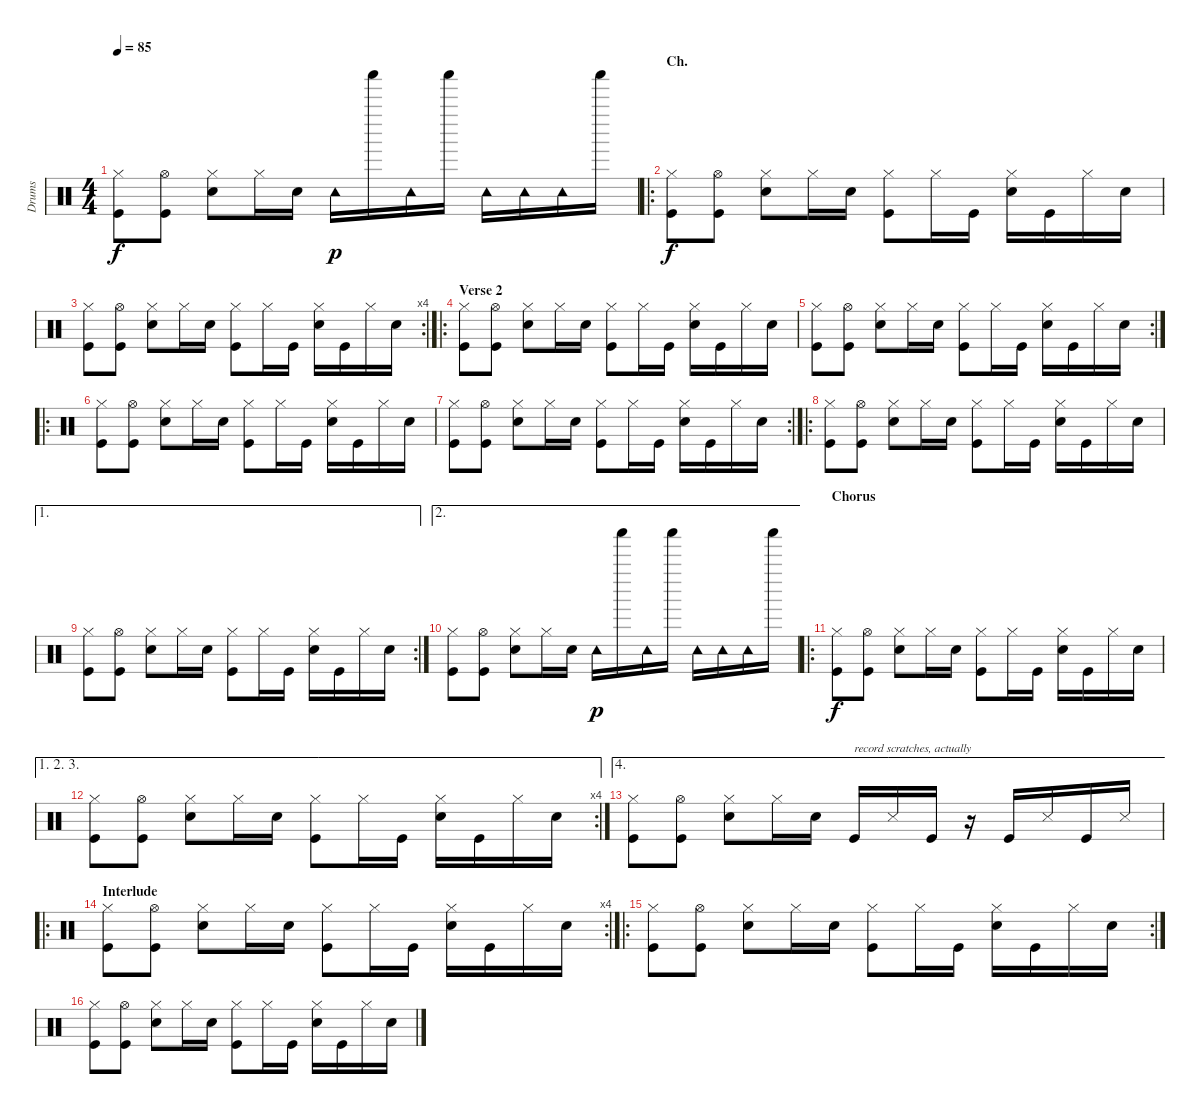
\track ("Drums" "Drums") {instrument percussion}
\staff {score}
\articulation defaults
\ts (4 4)
\tempo 85
\clef neutral
\ks c
("Hi-Hat (closed)" "Kick (hit)").8{dy f} ("Hi-Hat (open)" "Kick (hit)").8 ("Hi-Hat (closed)" "Snare (hit) 2").8 "Hi-Hat (closed)".16 "Snare (hit) 2".16 "Tambourine (hit)".16{dy p} "Shaker (hit)".16 "Tambourine (hit)".16 "Shaker (hit)".16 "Tambourine (hit)".16 "Tambourine (hit)".16 "Tambourine (hit)".16 "Shaker (hit)".16 |
\ro
\section ("" "Ch.")
("Hi-Hat (closed)" "Kick (hit)").8{dy f} ("Hi-Hat (open)" "Kick (hit)").8 ("Hi-Hat (closed)" "Snare (hit) 2").8 "Hi-Hat (closed)".16 "Snare (hit) 2".16 ("Hi-Hat (closed)" "Kick (hit)").8 "Hi-Hat (closed)".16 "Kick (hit)".16 ("Hi-Hat (closed)" "Snare (hit) 2").16 "Kick (hit)".16 "Hi-Hat (closed)".16 "Snare (hit) 2".16 |
\rc 4
("Hi-Hat (closed)" "Kick (hit)").8 ("Hi-Hat (open)" "Kick (hit)").8 ("Hi-Hat (closed)" "Snare (hit) 2").8 "Hi-Hat (closed)".16 "Snare (hit) 2".16 ("Hi-Hat (closed)" "Kick (hit)").8 "Hi-Hat (closed)".16 "Kick (hit)".16 ("Hi-Hat (closed)" "Snare (hit) 2").16 "Kick (hit)".16 "Hi-Hat (closed)".16 "Snare (hit) 2".16 |
\ro
\section ("" "Verse 2 ")
("Hi-Hat (closed)" "Kick (hit)").8 ("Hi-Hat (open)" "Kick (hit)").8 ("Hi-Hat (closed)" "Snare (hit) 2").8 "Hi-Hat (closed)".16 "Snare (hit) 2".16 ("Hi-Hat (closed)" "Kick (hit)").8 "Hi-Hat (closed)".16 "Kick (hit)".16 ("Hi-Hat (closed)" "Snare (hit) 2").16 "Kick (hit)".16 "Hi-Hat (closed)".16 "Snare (hit) 2".16 |
\rc 2
("Hi-Hat (closed)" "Kick (hit)").8 ("Hi-Hat (open)" "Kick (hit)").8 ("Hi-Hat (closed)" "Snare (hit) 2").8 "Hi-Hat (closed)".16 "Snare (hit) 2".16 ("Hi-Hat (closed)" "Kick (hit)").8 "Hi-Hat (closed)".16 "Kick (hit)".16 ("Hi-Hat (closed)" "Snare (hit) 2").16 "Kick (hit)".16 "Hi-Hat (closed)".16 "Snare (hit) 2".16 |
\ro
("Hi-Hat (closed)" "Kick (hit)").8 ("Hi-Hat (open)" "Kick (hit)").8 ("Hi-Hat (closed)" "Snare (hit) 2").8 "Hi-Hat (closed)".16 "Snare (hit) 2".16 ("Hi-Hat (closed)" "Kick (hit)").8 "Hi-Hat (closed)".16 "Kick (hit)".16 ("Hi-Hat (closed)" "Snare (hit) 2").16 "Kick (hit)".16 "Hi-Hat (closed)".16 "Snare (hit) 2".16 |
\rc 2
("Hi-Hat (closed)" "Kick (hit)").8 ("Hi-Hat (open)" "Kick (hit)").8 ("Hi-Hat (closed)" "Snare (hit) 2").8 "Hi-Hat (closed)".16 "Snare (hit) 2".16 ("Hi-Hat (closed)" "Kick (hit)").8 "Hi-Hat (closed)".16 "Kick (hit)".16 ("Hi-Hat (closed)" "Snare (hit) 2").16 "Kick (hit)".16 "Hi-Hat (closed)".16 "Snare (hit) 2".16 |
\ro
("Hi-Hat (closed)" "Kick (hit)").8 ("Hi-Hat (open)" "Kick (hit)").8 ("Hi-Hat (closed)" "Snare (hit) 2").8 "Hi-Hat (closed)".16 "Snare (hit) 2".16 ("Hi-Hat (closed)" "Kick (hit)").8 "Hi-Hat (closed)".16 "Kick (hit)".16 ("Hi-Hat (closed)" "Snare (hit) 2").16 "Kick (hit)".16 "Hi-Hat (closed)".16 "Snare (hit) 2".16 |
\ae 1
\rc 2
("Hi-Hat (closed)" "Kick (hit)").8 ("Hi-Hat (open)" "Kick (hit)").8 ("Hi-Hat (closed)" "Snare (hit) 2").8 "Hi-Hat (closed)".16 "Snare (hit) 2".16 ("Hi-Hat (closed)" "Kick (hit)").8 "Hi-Hat (closed)".16 "Kick (hit)".16 ("Hi-Hat (closed)" "Snare (hit) 2").16 "Kick (hit)".16 "Hi-Hat (closed)".16 "Snare (hit) 2".16 |
\ae 2
("Hi-Hat (closed)" "Kick (hit)").8 ("Hi-Hat (open)" "Kick (hit)").8 ("Hi-Hat (closed)" "Snare (hit) 2").8 "Hi-Hat (closed)".16 "Snare (hit) 2".16 "Tambourine (hit)".16{dy p} "Shaker (hit)".16 "Tambourine (hit)".16 "Shaker (hit)".16 "Tambourine (hit)".16 "Tambourine (hit)".16 "Tambourine (hit)".16 "Shaker (hit)".16 |
\ro
\section ("" "Chorus")
("Hi-Hat (closed)" "Kick (hit)").8{dy f} ("Hi-Hat (open)" "Kick (hit)").8 ("Hi-Hat (closed)" "Snare (hit) 2").8 "Hi-Hat (closed)".16 "Snare (hit) 2".16 ("Hi-Hat (closed)" "Kick (hit)").8 "Hi-Hat (closed)".16 "Kick (hit)".16 ("Hi-Hat (closed)" "Snare (hit) 2").16 "Kick (hit)".16 "Hi-Hat (closed)".16 "Snare (hit) 2".16 |
\ae (1 2 3)
\rc 4
("Hi-Hat (closed)" "Kick (hit)").8 ("Hi-Hat (open)" "Kick (hit)").8 ("Hi-Hat (closed)" "Snare (hit) 2").8 "Hi-Hat (closed)".16 "Snare (hit) 2".16 ("Hi-Hat (closed)" "Kick (hit)").8 "Hi-Hat (closed)".16 "Kick (hit)".16 ("Hi-Hat (closed)" "Snare (hit) 2").16 "Kick (hit)".16 "Hi-Hat (closed)".16 "Snare (hit) 2".16 |
\ae 4
("Hi-Hat (closed)" "Kick (hit)").8 ("Hi-Hat (open)" "Kick (hit)").8 ("Hi-Hat (closed)" "Snare (hit) 2").8 "Hi-Hat (closed)".16 "Snare (hit) 2".16 "Kick (hit)".16{txt "record scratches, actually"} "Snare (side stick) 3".16 "Kick (hit)".16 r.16 "Kick (hit)".16 "Snare (side stick) 3".16 "Kick (hit)".16 "Snare (side stick) 3".16 |
\ro
\rc 4
\section ("" "Interlude")
("Hi-Hat (closed)" "Kick (hit)").8 ("Hi-Hat (open)" "Kick (hit)").8 ("Hi-Hat (closed)" "Snare (hit) 2").8 "Hi-Hat (closed)".16 "Snare (hit) 2".16 ("Hi-Hat (closed)" "Kick (hit)").8 "Hi-Hat (closed)".16 "Kick (hit)".16 ("Hi-Hat (closed)" "Snare (hit) 2").16 "Kick (hit)".16 "Hi-Hat (closed)".16 "Snare (hit) 2".16 |
\ro
\rc 2
("Hi-Hat (closed)" "Kick (hit)").8 ("Hi-Hat (open)" "Kick (hit)").8 ("Hi-Hat (closed)" "Snare (hit) 2").8 "Hi-Hat (closed)".16 "Snare (hit) 2".16 ("Hi-Hat (closed)" "Kick (hit)").8 "Hi-Hat (closed)".16 "Kick (hit)".16 ("Hi-Hat (closed)" "Snare (hit) 2").16 "Kick (hit)".16 "Hi-Hat (closed)".16 "Snare (hit) 2".16 |
("Hi-Hat (closed)" "Kick (hit)").8 ("Hi-Hat (open)" "Kick (hit)").8 ("Hi-Hat (closed)" "Snare (hit) 2").8 "Hi-Hat (closed)".16 "Snare (hit) 2".16 ("Hi-Hat (closed)" "Kick (hit)").8 "Hi-Hat (closed)".16 "Kick (hit)".16 ("Hi-Hat (closed)" "Snare (hit) 2").16 "Kick (hit)".16 "Hi-Hat (closed)".16 "Snare (hit) 2".16
